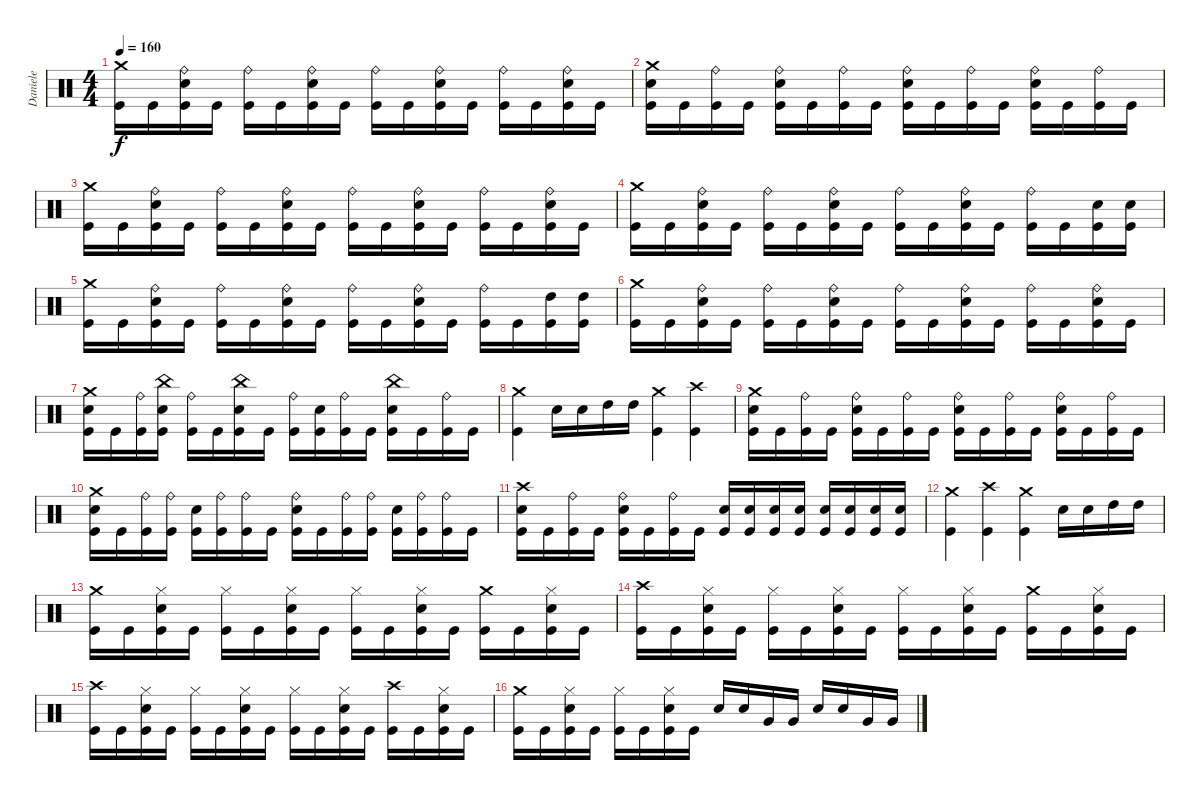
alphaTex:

\track ("Daniele" "Daniele") {instrument percussion}
\staff {score}
\articulation defaults
\ts (4 4)
\tempo 160
\clef neutral
\ks c
("Kick (hit)" "Crash medium (hit)").16{dy f} "Kick (hit)".16 ("Kick (hit)" "Electric Snare (hit)" "Ride (bell)").16 "Kick (hit)".16 ("Kick (hit)" "Ride (bell)").16 "Kick (hit)".16 ("Kick (hit)" "Electric Snare (hit)" "Ride (bell)").16 "Kick (hit)".16 ("Kick (hit)" "Ride (bell)").16 "Kick (hit)".16 ("Kick (hit)" "Electric Snare (hit)" "Ride (bell)").16 "Kick (hit)".16 ("Kick (hit)" "Ride (bell)").16 "Kick (hit)".16 ("Kick (hit)" "Electric Snare (hit)" "Ride (bell)").16 "Kick (hit)".16 |
("Kick (hit)" "Electric Snare (hit)" "Crash medium (hit)").16 "Kick (hit)".16 ("Kick (hit)" "Ride (bell)").16 "Kick (hit)".16 ("Kick (hit)" "Electric Snare (hit)" "Ride (bell)").16 "Kick (hit)".16 ("Kick (hit)" "Ride (bell)").16 "Kick (hit)".16 ("Kick (hit)" "Electric Snare (hit)" "Ride (bell)").16 "Kick (hit)".16 ("Kick (hit)" "Ride (bell)").16 "Kick (hit)".16 ("Kick (hit)" "Electric Snare (hit)" "Ride (bell)").16 "Kick (hit)".16 ("Kick (hit)" "Ride (bell)").16 "Kick (hit)".16 |
("Kick (hit)" "Crash medium (hit)").16 "Kick (hit)".16 ("Kick (hit)" "Electric Snare (hit)" "Ride (bell)").16 "Kick (hit)".16 ("Kick (hit)" "Ride (bell)").16 "Kick (hit)".16 ("Kick (hit)" "Electric Snare (hit)" "Ride (bell)").16 "Kick (hit)".16 ("Kick (hit)" "Ride (bell)").16 "Kick (hit)".16 ("Kick (hit)" "Electric Snare (hit)" "Ride (bell)").16 "Kick (hit)".16 ("Kick (hit)" "Ride (bell)").16 "Kick (hit)".16 ("Kick (hit)" "Electric Snare (hit)" "Ride (bell)").16 "Kick (hit)".16 |
("Kick (hit)" "Crash medium (hit)").16 "Kick (hit)".16 ("Kick (hit)" "Electric Snare (hit)" "Ride (bell)").16 "Kick (hit)".16 ("Kick (hit)" "Ride (bell)").16 "Kick (hit)".16 ("Kick (hit)" "Electric Snare (hit)" "Ride (bell)").16 "Kick (hit)".16 ("Kick (hit)" "Ride (bell)").16 "Kick (hit)".16 ("Kick (hit)" "Electric Snare (hit)" "Ride (bell)").16 "Kick (hit)".16 ("Kick (hit)" "Ride (bell)").16 "Kick (hit)".16 ("Kick (hit)" "Electric Snare (hit)").16 ("Kick (hit)" "Electric Snare (hit)").16 |
("Kick (hit)" "Crash medium (hit)").16 "Kick (hit)".16 ("Kick (hit)" "Electric Snare (hit)" "Ride (bell)").16 "Kick (hit)".16 ("Kick (hit)" "Ride (bell)").16 "Kick (hit)".16 ("Kick (hit)" "Electric Snare (hit)" "Ride (bell)").16 "Kick (hit)".16 ("Kick (hit)" "Ride (bell)").16 "Kick (hit)".16 ("Kick (hit)" "Electric Snare (hit)" "Ride (bell)").16 "Kick (hit)".16 ("Kick (hit)" "Ride (bell)").16 "Kick (hit)".16 ("Kick (hit)" "High Tom (hit)").16 ("Kick (hit)" "High Tom (hit)").16 |
("Kick (hit)" "Crash medium (hit)").16 "Kick (hit)".16 ("Kick (hit)" "Electric Snare (hit)" "Ride (bell)").16 "Kick (hit)".16 ("Kick (hit)" "Ride (bell)").16 "Kick (hit)".16 ("Kick (hit)" "Electric Snare (hit)" "Ride (bell)").16 "Kick (hit)".16 ("Kick (hit)" "Ride (bell)").16 "Kick (hit)".16 ("Kick (hit)" "Electric Snare (hit)" "Ride (bell)").16 "Kick (hit)".16 ("Kick (hit)" "Ride (bell)").16 "Kick (hit)".16 ("Kick (hit)" "Electric Snare (hit)" "Ride (bell)").16 "Kick (hit)".16 |
("Kick (hit)" "Electric Snare (hit)" "Crash medium (hit)").16 "Kick (hit)".16 ("Kick (hit)" "Ride (bell)").16 ("Kick (hit)" "Electric Snare (hit)" "China (hit)").16 ("Kick (hit)" "Ride (bell)").16 "Kick (hit)".16 ("Kick (hit)" "Electric Snare (hit)" "China (hit)").16 "Kick (hit)".16 ("Kick (hit)" "Ride (bell)").16 ("Kick (hit)" "Electric Snare (hit)").16 ("Kick (hit)" "Ride (bell)").16 "Kick (hit)".16 ("Kick (hit)" "Electric Snare (hit)" "China (hit)").16 "Kick (hit)".16 ("Kick (hit)" "Ride (bell)").16 "Kick (hit)".16 |
("Kick (hit)" "Crash medium (hit)").4 "Electric Snare (hit)".16 "Electric Snare (hit)".16 "High Tom (hit)".16 "High Tom (hit)".16 ("Kick (hit)" "Crash medium (hit)").4 ("Kick (hit)" "Crash high (hit)").4 |
("Kick (hit)" "Electric Snare (hit)" "Crash medium (hit)").16 "Kick (hit)".16 ("Kick (hit)" "Ride (bell)").16 "Kick (hit)".16 ("Kick (hit)" "Electric Snare (hit)" "Ride (bell)").16 "Kick (hit)".16 ("Kick (hit)" "Ride (bell)").16 "Kick (hit)".16 ("Kick (hit)" "Electric Snare (hit)" "Ride (bell)").16 "Kick (hit)".16 ("Kick (hit)" "Ride (bell)").16 "Kick (hit)".16 ("Kick (hit)" "Electric Snare (hit)" "Ride (bell)").16 "Kick (hit)".16 ("Kick (hit)" "Ride (bell)").16 "Kick (hit)".16 |
("Kick (hit)" "Electric Snare (hit)" "Crash medium (hit)").16 "Kick (hit)".16 ("Kick (hit)" "Ride (bell)").16 ("Kick (hit)" "Ride (bell)").16 ("Kick (hit)" "Electric Snare (hit)").16 ("Kick (hit)" "Ride (bell)").16 ("Kick (hit)" "Ride (bell)").16 "Kick (hit)".16 ("Kick (hit)" "Electric Snare (hit)" "Ride (bell)").16 "Kick (hit)".16 ("Kick (hit)" "Ride (bell)").16 ("Kick (hit)" "Ride (bell)").16 ("Kick (hit)" "Electric Snare (hit)").16 ("Kick (hit)" "Ride (bell)").16 ("Kick (hit)" "Ride (bell)").16 "Kick (hit)".16 |
("Kick (hit)" "Electric Snare (hit)" "Crash high (hit)").16 "Kick (hit)".16 ("Kick (hit)" "Ride (bell)").16 "Kick (hit)".16 ("Kick (hit)" "Electric Snare (hit)" "Ride (bell)").16 "Kick (hit)".16 ("Kick (hit)" "Ride (bell)").16 "Kick (hit)".16 ("Kick (hit)" "Electric Snare (hit)").16 ("Kick (hit)" "Electric Snare (hit)").16 ("Kick (hit)" "Electric Snare (hit)").16 ("Kick (hit)" "Electric Snare (hit)").16 ("Kick (hit)" "Electric Snare (hit)").16 ("Kick (hit)" "Electric Snare (hit)").16 ("Kick (hit)" "Electric Snare (hit)").16 ("Kick (hit)" "Electric Snare (hit)").16 |
("Kick (hit)" "Crash medium (hit)").4 ("Kick (hit)" "Crash high (hit)").4 ("Kick (hit)" "Crash medium (hit)").4 "Electric Snare (hit)".16 "Electric Snare (hit)".16 "High Tom (hit)".16 "High Tom (hit)".16 |
("Kick (hit)" "Crash medium (hit)").16 "Kick (hit)".16 ("Kick (hit)" "Electric Snare (hit)" "Hi-Hat (closed)").16 "Kick (hit)".16 ("Kick (hit)" "Hi-Hat (closed)").16 "Kick (hit)".16 ("Kick (hit)" "Electric Snare (hit)" "Hi-Hat (closed)").16 "Kick (hit)".16 ("Kick (hit)" "Hi-Hat (closed)").16 "Kick (hit)".16 ("Kick (hit)" "Electric Snare (hit)" "Hi-Hat (closed)").16 "Kick (hit)".16 ("Kick (hit)" "Crash medium (hit)").16 "Kick (hit)".16 ("Kick (hit)" "Electric Snare (hit)" "Hi-Hat (closed)").16 "Kick (hit)".16 |
("Kick (hit)" "Crash high (hit)").16 "Kick (hit)".16 ("Kick (hit)" "Electric Snare (hit)" "Hi-Hat (closed)").16 "Kick (hit)".16 ("Kick (hit)" "Hi-Hat (closed)").16 "Kick (hit)".16 ("Kick (hit)" "Electric Snare (hit)" "Hi-Hat (closed)").16 "Kick (hit)".16 ("Kick (hit)" "Hi-Hat (closed)").16 "Kick (hit)".16 ("Kick (hit)" "Electric Snare (hit)" "Hi-Hat (closed)").16 "Kick (hit)".16 ("Kick (hit)" "Crash medium (hit)").16 "Kick (hit)".16 ("Kick (hit)" "Electric Snare (hit)" "Hi-Hat (closed)").16 "Kick (hit)".16 |
("Kick (hit)" "Crash high (hit)").16 "Kick (hit)".16 ("Kick (hit)" "Electric Snare (hit)" "Hi-Hat (closed)").16 "Kick (hit)".16 ("Kick (hit)" "Hi-Hat (closed)").16 "Kick (hit)".16 ("Kick (hit)" "Electric Snare (hit)" "Hi-Hat (closed)").16 "Kick (hit)".16 ("Kick (hit)" "Hi-Hat (closed)").16 "Kick (hit)".16 ("Kick (hit)" "Electric Snare (hit)" "Hi-Hat (closed)").16 "Kick (hit)".16 ("Kick (hit)" "Crash high (hit)").16 "Kick (hit)".16 ("Kick (hit)" "Electric Snare (hit)" "Hi-Hat (closed)").16 "Kick (hit)".16 |
("Kick (hit)" "Crash medium (hit)").16 "Kick (hit)".16 ("Kick (hit)" "Electric Snare (hit)" "Hi-Hat (closed)").16 "Kick (hit)".16 ("Kick (hit)" "Hi-Hat (closed)").16 "Kick (hit)".16 ("Kick (hit)" "Electric Snare (hit)" "Hi-Hat (closed)").16 "Kick (hit)".16 "Electric Snare (hit)".16 "Electric Snare (hit)".16 "Very Low Tom (hit)".16 "Very Low Tom (hit)".16 "Electric Snare (hit)".16 "Electric Snare (hit)".16 "Very Low Tom (hit)".16 "Very Low Tom (hit)".16
